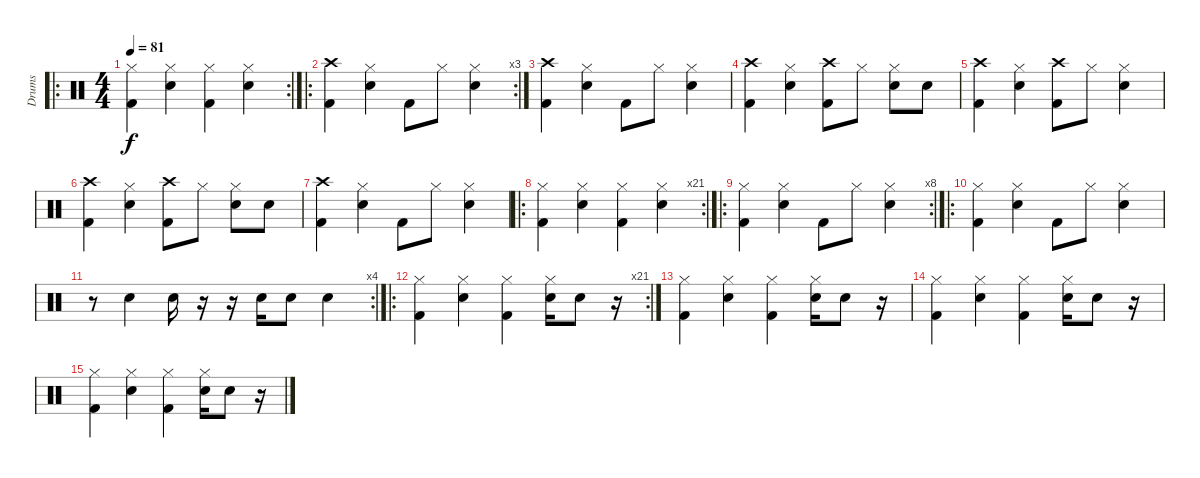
\track ("Drums" "Drums") {instrument percussion}
\staff {score}
\articulation defaults
\ro
\rc 2
\ts (4 4)
\tempo 81
\clef neutral
\ks c
("Hi-Hat (closed)" "Kick (hit) 2").4{dy f} ("Hi-Hat (closed)" "Electric Snare (hit)").4 ("Hi-Hat (closed)" "Kick (hit) 2").4 ("Hi-Hat (closed)" "Electric Snare (hit)").4 |
\ro
\rc 3
("Kick (hit) 2" "Crash high (hit)").4 ("Hi-Hat (closed)" "Electric Snare (hit)").4 "Kick (hit) 2".8 "Hi-Hat (closed)".8 ("Hi-Hat (closed)" "Electric Snare (hit)").4 |
("Kick (hit) 2" "Crash high (hit)").4 ("Hi-Hat (closed)" "Electric Snare (hit)").4 "Kick (hit) 2".8 "Hi-Hat (closed)".8 ("Hi-Hat (closed)" "Electric Snare (hit)").4 |
("Kick (hit) 2" "Crash high (hit)").4 ("Hi-Hat (closed)" "Electric Snare (hit)").4 ("Crash high (hit)" "Kick (hit) 2").8 "Hi-Hat (closed)".8 ("Hi-Hat (closed)" "Electric Snare (hit)").8 "Electric Snare (hit)".8 |
("Kick (hit) 2" "Crash high (hit)").4 ("Hi-Hat (closed)" "Electric Snare (hit)").4 ("Crash high (hit)" "Kick (hit) 2").8 "Hi-Hat (closed)".8 ("Hi-Hat (closed)" "Electric Snare (hit)").4 |
("Kick (hit) 2" "Crash high (hit)").4 ("Hi-Hat (closed)" "Electric Snare (hit)").4 ("Crash high (hit)" "Kick (hit) 2").8 "Hi-Hat (closed)".8 ("Hi-Hat (closed)" "Electric Snare (hit)").8 "Electric Snare (hit)".8 |
("Kick (hit) 2" "Crash high (hit)").4 ("Hi-Hat (closed)" "Electric Snare (hit)").4 "Kick (hit) 2".8 "Hi-Hat (closed)".8 ("Hi-Hat (closed)" "Electric Snare (hit)").4 |
\ro
\rc 21
("Hi-Hat (closed)" "Kick (hit) 2").4 ("Hi-Hat (closed)" "Electric Snare (hit)").4 ("Hi-Hat (closed)" "Kick (hit) 2").4 ("Hi-Hat (closed)" "Electric Snare (hit)").4 |
\ro
\rc 8
("Kick (hit) 2" "Hi-Hat (closed)").4 ("Hi-Hat (closed)" "Electric Snare (hit)").4 "Kick (hit) 2".8 "Hi-Hat (closed)".8 ("Hi-Hat (closed)" "Electric Snare (hit)").4 |
\ro
("Kick (hit) 2" "Hi-Hat (closed)").4 ("Hi-Hat (closed)" "Electric Snare (hit)").4 "Kick (hit) 2".8 "Hi-Hat (closed)".8 ("Hi-Hat (closed)" "Electric Snare (hit)").4 |
\rc 4
r.8 "Electric Snare (hit)".4 "Electric Snare (hit)".16 r.16 r.16 "Electric Snare (hit)".16 "Electric Snare (hit)".8 "Electric Snare (hit)".4 |
\ro
\rc 21
("Hi-Hat (closed)" "Kick (hit) 2").4 ("Hi-Hat (closed)" "Electric Snare (hit)").4 ("Hi-Hat (closed)" "Kick (hit) 2").4 ("Hi-Hat (closed)" "Electric Snare (hit)").16 "Electric Snare (hit)".8 r.16 |
("Hi-Hat (closed)" "Kick (hit) 2").4 ("Hi-Hat (closed)" "Electric Snare (hit)").4 ("Hi-Hat (closed)" "Kick (hit) 2").4 ("Hi-Hat (closed)" "Electric Snare (hit)").16 "Electric Snare (hit)".8 r.16 |
("Hi-Hat (closed)" "Kick (hit) 2").4 ("Hi-Hat (closed)" "Electric Snare (hit)").4 ("Hi-Hat (closed)" "Kick (hit) 2").4 ("Hi-Hat (closed)" "Electric Snare (hit)").16 "Electric Snare (hit)".8 r.16 |
("Hi-Hat (closed)" "Kick (hit) 2").4 ("Hi-Hat (closed)" "Electric Snare (hit)").4 ("Hi-Hat (closed)" "Kick (hit) 2").4 ("Hi-Hat (closed)" "Electric Snare (hit)").16 "Electric Snare (hit)".8 r.16
